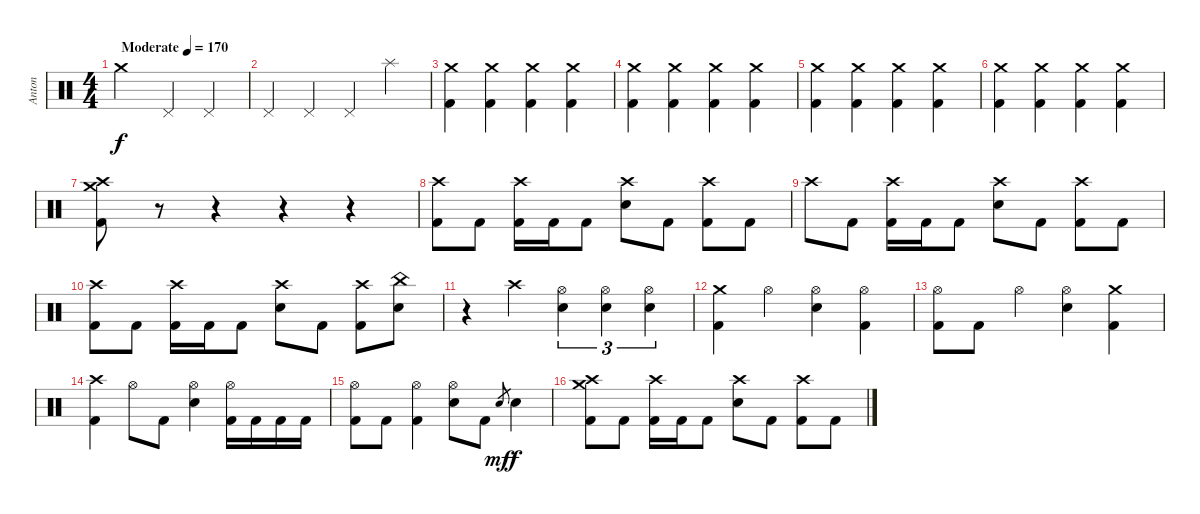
\track ("Anton" "Anton") {instrument percussion}
\staff
\articulation defaults
\ts (4 4)
\tempo (170 "Moderate")
\clef neutral
\ks c "Crash medium (hit)".2{dy f} "Pedal Hi-Hat (hit)".4 "Pedal Hi-Hat (hit)".4
|
"Pedal Hi-Hat (hit)".4 "Pedal Hi-Hat (hit)".4 "Pedal Hi-Hat (hit)".4 "Splash (hit)".4 |
("Crash medium (hit)" "Kick (hit) 2").4 ("Crash medium (hit)" "Kick (hit) 2").4 ("Crash medium (hit)" "Kick (hit) 2").4 ("Crash medium (hit)" "Kick (hit) 2").4 |
("Crash medium (hit)" "Kick (hit) 2").4 ("Crash medium (hit)" "Kick (hit) 2").4 ("Crash medium (hit)" "Kick (hit) 2").4 ("Crash medium (hit)" "Kick (hit) 2").4 |
("Crash medium (hit)" "Kick (hit) 2").4 ("Crash medium (hit)" "Kick (hit) 2").4 ("Crash medium (hit)" "Kick (hit) 2").4 ("Crash medium (hit)" "Kick (hit) 2").4 |
("Crash medium (hit)" "Kick (hit) 2").4 ("Crash medium (hit)" "Kick (hit) 2").4 ("Crash medium (hit)" "Kick (hit) 2").4 ("Crash medium (hit)" "Kick (hit) 2").4 |
("Crash medium (hit)" "Crash high (hit)" "Kick (hit) 2").8 r.8 r.4 r.4 r.4 |
("Crash high (hit)" "Kick (hit) 2").8 "Kick (hit) 2".8 ("Crash high (hit)" "Kick (hit) 2").16 "Kick (hit) 2".16 "Kick (hit) 2".8 ("Crash high (hit)" "Electric Snare (hit)").8 "Kick (hit) 2".8 ("Crash high (hit)" "Kick (hit) 2").8 "Kick (hit) 2".8 |
"Crash high (hit)".8 "Kick (hit) 2".8 ("Crash high (hit)" "Kick (hit) 2").16 "Kick (hit) 2".16 "Kick (hit) 2".8 ("Crash high (hit)" "Electric Snare (hit)").8 "Kick (hit) 2".8 ("Crash high (hit)" "Kick (hit) 2").8 "Kick (hit) 2".8 |
("Crash high (hit)" "Kick (hit) 2").8 "Kick (hit) 2".8 ("Crash high (hit)" "Kick (hit) 2").16 "Kick (hit) 2".16 "Kick (hit) 2".8 ("Crash high (hit)" "Electric Snare (hit)").8 "Kick (hit) 2".8 ("Crash high (hit)" "Kick (hit) 2").8 ("China (hit)" "Electric Snare (hit)").8 |
r.4 "Crash high (hit)".4 ("Hi-Hat (open)" "Electric Snare (hit)").4{tu (3 2)} ("Hi-Hat (open)" "Electric Snare (hit)").4{tu (3 2)} ("Hi-Hat (open)" "Electric Snare (hit)").4{tu (3 2)} |
("Crash medium (hit)" "Kick (hit) 2").4 "Hi-Hat (open)".4 ("Hi-Hat (open)" "Electric Snare (hit)").4 ("Hi-Hat (open)" "Kick (hit) 2").4 |
("Hi-Hat (open)" "Kick (hit) 2").8 "Kick (hit) 2".8 "Hi-Hat (open)".4 ("Hi-Hat (open)" "Electric Snare (hit)").4 ("Crash medium (hit)" "Kick (hit) 2").4 |
("Crash high (hit)" "Kick (hit) 2").4 "Hi-Hat (open)".8 "Kick (hit) 2".8 ("Hi-Hat (open)" "Electric Snare (hit)").4 ("Hi-Hat (open)" "Kick (hit) 2").16 "Kick (hit) 2".16 "Kick (hit) 2".16 "Kick (hit) 2".16 |
("Hi-Hat (open)" "Kick (hit) 2").8 "Kick (hit) 2".8 ("Hi-Hat (open)" "Kick (hit) 2").4 ("Hi-Hat (open)" "Electric Snare (hit)").8 "Kick (hit) 2".8 "Electric Snare (hit)".8{gr dy mf} "Electric Snare (hit)".4{dy f} |
("Crash medium (hit)" "Crash high (hit)" "Kick (hit) 2").8 "Kick (hit) 2".8 ("Crash high (hit)" "Kick (hit) 2").16 "Kick (hit) 2".16 "Kick (hit) 2".8 ("Crash high (hit)" "Electric Snare (hit)").8 "Kick (hit) 2".8 ("Crash high (hit)" "Kick (hit) 2").8 "Kick (hit) 2".8
